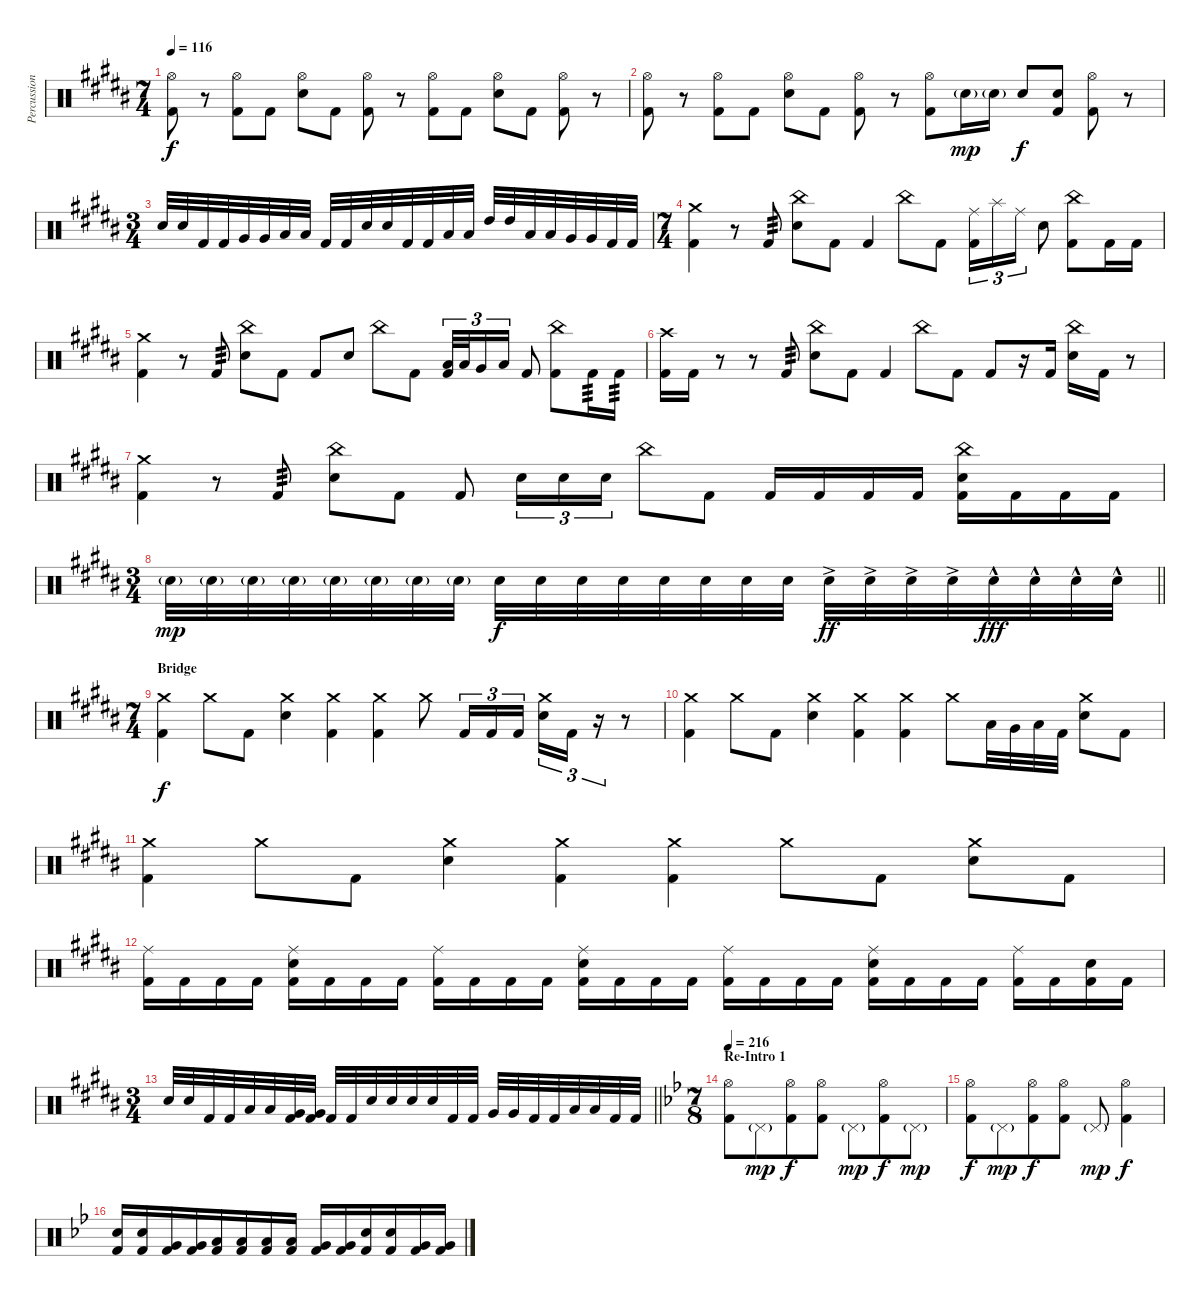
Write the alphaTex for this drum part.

\track ("Percussion" "Percussion") {instrument percussion}
\staff {score}
\articulation defaults
\ts (7 4)
\tempo 116
\clef neutral
\ks g#minor
("Hi-Hat (open)" "Kick (hit) 2").8{dy f} r.8 ("Hi-Hat (open)" "Kick (hit) 2").8 "Kick (hit) 2".8 ("Hi-Hat (open)" "Electric Snare (hit)").8 "Kick (hit) 2".8 ("Hi-Hat (open)" "Kick (hit) 2").8 r.8 ("Hi-Hat (open)" "Kick (hit) 2").8 "Kick (hit) 2".8 ("Hi-Hat (open)" "Electric Snare (hit)").8 "Kick (hit) 2".8 ("Hi-Hat (open)" "Kick (hit) 2").8 r.8 |
("Hi-Hat (open)" "Kick (hit) 2").8 r.8 ("Hi-Hat (open)" "Kick (hit) 2").8 "Kick (hit) 2".8 ("Hi-Hat (open)" "Electric Snare (hit)").8 "Kick (hit) 2".8 ("Hi-Hat (open)" "Kick (hit) 2").8 r.8 ("Hi-Hat (open)" "Kick (hit) 2").8 "Electric Snare (hit)"{g}.16{dy mp} "Electric Snare (hit)"{g}.16 "Electric Snare (hit)".8{dy f} ("Electric Snare (hit)" "Kick (hit) 2").8 ("Hi-Hat (open)" "Kick (hit) 2").8 r.8 |
\ts (3 4)
"Electric Snare (hit)".32 "Electric Snare (hit)".32 "Kick (hit) 2".32 "Kick (hit) 2".32 "Very Low Tom (hit)".32 "Very Low Tom (hit)".32 "Low Floor Tom (hit)".32 "Low Floor Tom (hit)".32 "Kick (hit) 2".32 "Kick (hit) 2".32 "Electric Snare (hit)".32 "Electric Snare (hit)".32 "Kick (hit) 2".32 "Kick (hit) 2".32 "Low Tom (hit)".32 "Low Tom (hit)".32 "High Tom (hit)".32 "High Tom (hit)".32 "Low Tom (hit)".32 "Low Tom (hit)".32 "Very Low Tom (hit)".32 "Very Low Tom (hit)".32 "Kick (hit) 2".32 "Kick (hit) 2".32 |
\ts (7 4)
("Crash medium (hit)" "Kick (hit) 2").4 r.8 "Kick (hit) 2".8{tp 3} ("China (hit)" "Electric Snare (hit)").8 "Kick (hit) 2".8 "Kick (hit) 2".4 "China (hit)".8 "Kick (hit) 2".8 ("Ride (middle)" "Kick (hit) 2").16{tu (3 2)} "Splash (hit)".16{tu (3 2)} "Ride (middle)".16{tu (3 2)} "Electric Snare (hit)".8 ("China (hit)" "Kick (hit) 2").8 "Kick (hit) 2".16 "Kick (hit) 2".16 |
("Crash medium (hit)" "Kick (hit) 2").4 r.8 "Kick (hit) 2".8{tp 3} ("China (hit)" "Electric Snare (hit)").8 "Kick (hit) 2".8 "Kick (hit) 2".8 "Electric Snare (hit)".8 "China (hit)".8 "Kick (hit) 2".8 ("Low Tom (hit)" "Kick (hit) 2").32{tu (3 2)} "Low Tom (hit)".32{tu (3 2)} "Very Low Tom (hit)".16{tu (3 2)} "Low Floor Tom (hit)".16{tu (3 2)} "Kick (hit) 2".8 ("China (hit)" "Kick (hit) 2").8 "Kick (hit) 2".16{tp 3} "Kick (hit) 2".16{tp 3} |
("Crash high (hit)" "Kick (hit) 2").16 "Kick (hit) 2".16 r.8 r.8 "Kick (hit) 2".8{tp 3} ("China (hit)" "Electric Snare (hit)").8 "Kick (hit) 2".8 "Kick (hit) 2".4 "China (hit)".8 "Kick (hit) 2".8 "Kick (hit) 2".8 r.16 "Kick (hit) 2".16 ("China (hit)" "Electric Snare (hit)").16 "Kick (hit) 2".16 r.8 |
("Crash medium (hit)" "Kick (hit) 2").4 r.8 "Kick (hit) 2".8{tp 3} ("China (hit)" "Electric Snare (hit)").8 "Kick (hit) 2".8 "Kick (hit) 2".8 "Electric Snare (hit)".16{tu (3 2)} "Electric Snare (hit)".16{tu (3 2)} "Electric Snare (hit)".16{tu (3 2)} "China (hit)".8 "Kick (hit) 2".8 "Kick (hit) 2".16 "Kick (hit) 2".16 "Kick (hit) 2".16 "Kick (hit) 2".16 ("China (hit)" "Electric Snare (hit)" "Kick (hit) 2").16 "Kick (hit) 2".16 "Kick (hit) 2".16 "Kick (hit) 2".16 |
\ts (3 4)
\barLineRight lightlight "Electric Snare (hit)"{g}.32{dy mp} "Electric Snare (hit)"{g}.32 "Electric Snare (hit)"{g}.32 "Electric Snare (hit)"{g}.32 "Electric Snare (hit)"{g}.32 "Electric Snare (hit)"{g}.32 "Electric Snare (hit)"{g}.32 "Electric Snare (hit)"{g}.32 "Electric Snare (hit)".32{dy f} "Electric Snare (hit)".32 "Electric Snare (hit)".32 "Electric Snare (hit)".32 "Electric Snare (hit)".32 "Electric Snare (hit)".32 "Electric Snare (hit)".32 "Electric Snare (hit)".32 "Electric Snare (hit)"{ac}.32{dy ff} "Electric Snare (hit)"{ac}.32 "Electric Snare (hit)"{ac}.32 "Electric Snare (hit)"{ac}.32 "Electric Snare (hit)"{hac}.32{dy fff} "Electric Snare (hit)"{hac}.32 "Electric Snare (hit)"{hac}.32 "Electric Snare (hit)"{hac}.32
|
\ts (7 4)
\section ("" "Bridge")
("Crash medium (hit)" "Kick (hit) 2").4{dy f} "Crash medium (hit)".8 "Kick (hit) 2".8 ("Crash medium (hit)" "Electric Snare (hit)").4 ("Crash medium (hit)" "Kick (hit) 2").4 ("Crash medium (hit)" "Kick (hit) 2").4 "Crash medium (hit)".8 "Kick (hit) 2".16{tu (3 2)} "Kick (hit) 2".16{tu (3 2)} "Kick (hit) 2".16{tu (3 2)} ("Crash medium (hit)" "Electric Snare (hit)").16{tu (3 2)} "Kick (hit) 2".16{tu (3 2)} r.16{tu (3 2)} r.8 |
("Crash medium (hit)" "Kick (hit) 2").4 "Crash medium (hit)".8 "Kick (hit) 2".8 ("Crash medium (hit)" "Electric Snare (hit)").4 ("Crash medium (hit)" "Kick (hit) 2").4 ("Crash medium (hit)" "Kick (hit) 2").4 "Crash medium (hit)".8 "Low Tom (hit)".32 "Very Low Tom (hit)".32 "Low Floor Tom (hit)".32 "Kick (hit) 2".32 ("Crash medium (hit)" "Electric Snare (hit)").8 "Kick (hit) 2".8 |
("Crash medium (hit)" "Kick (hit) 2").4 "Crash medium (hit)".8 "Kick (hit) 2".8 ("Crash medium (hit)" "Electric Snare (hit)").4 ("Crash medium (hit)" "Kick (hit) 2").4 ("Crash medium (hit)" "Kick (hit) 2").4 "Crash medium (hit)".8 "Kick (hit) 2".8 ("Crash medium (hit)" "Electric Snare (hit)").8 "Kick (hit) 2".8 |
("Ride (middle)" "Kick (hit) 2").16 "Kick (hit) 2".16 "Kick (hit) 2".16 "Kick (hit) 2".16 ("Ride (middle)" "Electric Snare (hit)" "Kick (hit) 2").16 "Kick (hit) 2".16 "Kick (hit) 2".16 "Kick (hit) 2".16 ("Ride (middle)" "Kick (hit) 2").16 "Kick (hit) 2".16 "Kick (hit) 2".16 "Kick (hit) 2".16 ("Ride (middle)" "Electric Snare (hit)" "Kick (hit) 2").16 "Kick (hit) 2".16 "Kick (hit) 2".16 "Kick (hit) 2".16 ("Ride (middle)" "Kick (hit) 2").16 "Kick (hit) 2".16 "Kick (hit) 2".16 "Kick (hit) 2".16 ("Ride (middle)" "Electric Snare (hit)" "Kick (hit) 2").16 "Kick (hit) 2".16 "Kick (hit) 2".16 "Kick (hit) 2".16 ("Ride (middle)" "Kick (hit) 2").16 "Kick (hit) 2".16 ("Electric Snare (hit)" "Kick (hit) 2").16 "Kick (hit) 2".16 |
\ts (3 4)
\barLineRight lightlight "Electric Snare (hit)".32 "Electric Snare (hit)".32 "Kick (hit) 2".32 "Kick (hit) 2".32 "Low Tom (hit)".32 "Low Tom (hit)".32
("Very Low Tom (hit)" "Kick (hit) 2").32 ("Very Low Tom (hit)" "Kick (hit) 2").32 "Kick (hit) 2".32 "Kick (hit) 2".32 "Electric Snare (hit)".32 "Electric Snare (hit)".32 "Electric Snare (hit)".32 "Electric Snare (hit)".32 "Kick (hit) 2".32 "Kick (hit) 2".32 "Very Low Tom (hit)".32 "Very Low Tom (hit)".32 "Kick (hit) 2".32 "Kick (hit) 2".32 "Low Floor Tom (hit)".32 "Low Floor Tom (hit)".32 "Kick (hit) 2".32 "Kick (hit) 2".32 |
\ts (7 8)
\section ("" "Re-Intro 1")
\tempo 216
\ks gminor
("Hi-Hat (open)" "Kick (hit) 2").8 "Pedal Hi-Hat (hit)"{g}.8{dy mp} ("Hi-Hat (open)" "Kick (hit) 2").8{dy f} ("Hi-Hat (open)" "Kick (hit) 2").8 "Pedal Hi-Hat (hit)"{g}.8{dy mp} ("Hi-Hat (open)" "Kick (hit) 2").8{dy f} "Pedal Hi-Hat (hit)"{g}.8{dy mp} |
("Hi-Hat (open)" "Kick (hit) 2").8{dy f} "Pedal Hi-Hat (hit)"{g}.8{dy mp} ("Hi-Hat (open)" "Kick (hit) 2").8{dy f} ("Hi-Hat (open)" "Kick (hit) 2").8 "Pedal Hi-Hat (hit)"{g}.8{dy mp} ("Hi-Hat (open)" "Kick (hit) 2").4{dy f} |
("Electric Snare (hit)" "Kick (hit) 2").16 ("Electric Snare (hit)" "Kick (hit) 2").16 ("Very Low Tom (hit)" "Kick (hit) 2").16 ("Very Low Tom (hit)" "Kick (hit) 2").16 ("Low Floor Tom (hit)" "Kick (hit) 2").16 ("Low Floor Tom (hit)" "Kick (hit) 2").16 ("Low Floor Tom (hit)" "Kick (hit) 2").16 ("Low Floor Tom (hit)" "Kick (hit) 2").16 ("Very Low Tom (hit)" "Kick (hit) 2").16 ("Very Low Tom (hit)" "Kick (hit) 2").16 ("Electric Snare (hit)" "Kick (hit) 2").16 ("Electric Snare (hit)" "Kick (hit) 2").16 ("Very Low Tom (hit)" "Kick (hit) 2").16 ("Very Low Tom (hit)" "Kick (hit) 2").16
